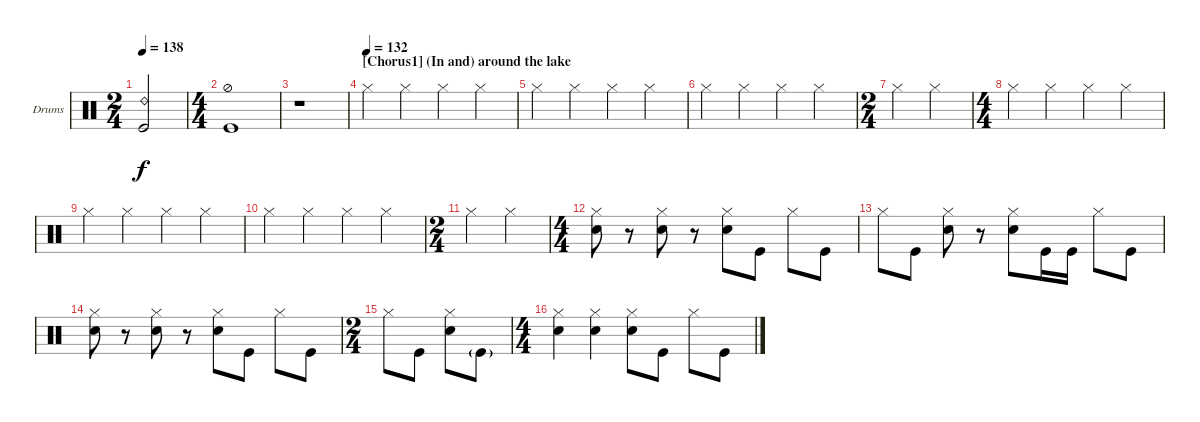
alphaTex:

\bracketExtendMode groupsimilarinstruments
\firstSystemTrackNameOrientation horizontal
\otherSystemsTrackNameOrientation horizontal
\track ("Drumkit" "Drums") {instrument percussion}
\staff {score}
\articulation defaults
\ts (2 4)
\tempo 138
\clef neutral
\ks aminor
("Kick (hit)" "Ride (bell) 2").2{dy f} |
\ts (4 4)
("Kick (hit)" "Hi-Hat (half)").1 |
r.1 |
\section ("" "[Chorus1] (In and) around the lake")
\tempo (132)
"Hi-Hat (closed)".4 "Hi-Hat (closed)".4 "Hi-Hat (closed)".4 "Hi-Hat (closed)".4 |
"Hi-Hat (closed)".4 "Hi-Hat (closed)".4 "Hi-Hat (closed)".4 "Hi-Hat (closed)".4 |
"Hi-Hat (closed)".4 "Hi-Hat (closed)".4 "Hi-Hat (closed)".4 "Hi-Hat (closed)".4 |
\ts (2 4)
"Hi-Hat (closed)".4 "Hi-Hat (closed)".4 |
\ts (4 4)
"Hi-Hat (closed)".4 "Hi-Hat (closed)".4 "Hi-Hat (closed)".4 "Hi-Hat (closed)".4 |
"Hi-Hat (closed)".4 "Hi-Hat (closed)".4 "Hi-Hat (closed)".4 "Hi-Hat (closed)".4 |
"Hi-Hat (closed)".4 "Hi-Hat (closed)".4 "Hi-Hat (closed)".4 "Hi-Hat (closed)".4 |
\ts (2 4)
"Hi-Hat (closed)".4 "Hi-Hat (closed)".4 |
\ts (4 4)
("Hi-Hat (closed)" "Snare (hit) 2").8 r.8 ("Hi-Hat (closed)" "Snare (hit) 2").8 r.8 ("Hi-Hat (closed)" "Snare (hit) 2").8 "Kick (hit)".8 "Hi-Hat (closed)".8 "Kick (hit)".8 |
"Hi-Hat (closed)".8 "Kick (hit)".8 ("Hi-Hat (closed)" "Snare (hit) 2").8 r.8 ("Hi-Hat (closed)" "Snare (hit) 2").8 "Kick (hit)".16 "Kick (hit)".16 "Hi-Hat (closed)".8 "Kick (hit)".8 |
("Hi-Hat (closed)" "Snare (hit) 2").8 r.8 ("Hi-Hat (closed)" "Snare (hit) 2").8 r.8 ("Hi-Hat (closed)" "Snare (hit) 2").8 "Kick (hit)".8 "Hi-Hat (closed)".8 "Kick (hit)".8 |
\ts (2 4)
"Hi-Hat (closed)".8 "Kick (hit)".8 ("Hi-Hat (closed)" "Snare (hit) 2").8 "Kick (hit)"{g}.8 |
\ts (4 4)
("Hi-Hat (closed)" "Snare (hit) 2").4 ("Hi-Hat (closed)" "Snare (hit) 2").4 ("Hi-Hat (closed)" "Snare (hit) 2").8 "Kick (hit)".8 "Hi-Hat (closed)".8 "Kick (hit)".8
